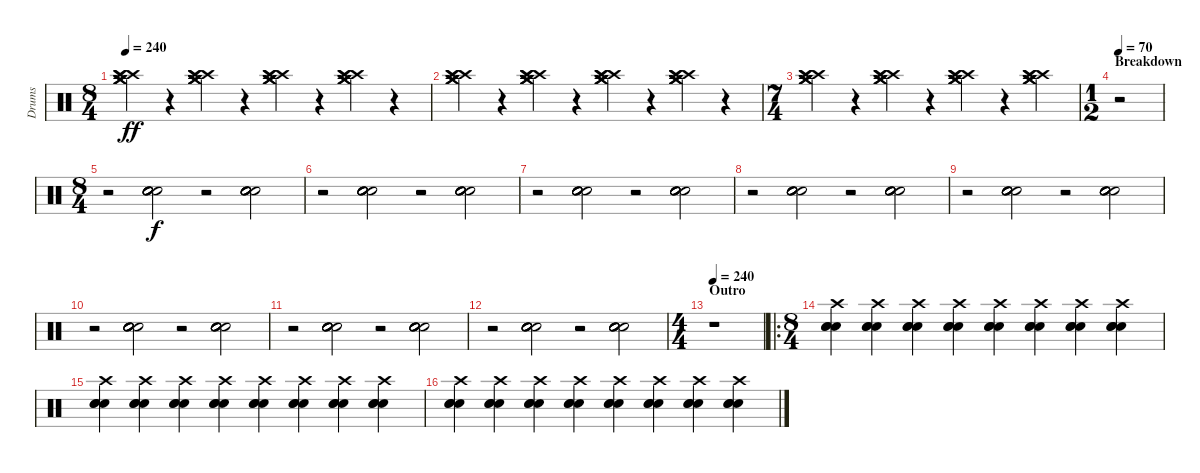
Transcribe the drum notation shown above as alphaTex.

\track ("Drums" "Drums") {instrument percussion}
\staff {score}
\articulation defaults
\ts (8 4)
\tempo 240
\clef neutral
\ks c
("Crash medium (hit)" "Crash medium (hit)" "Crash medium (hit)" "Crash high (hit)" "Crash high (hit)" "Crash high (hit)").4{dy ff} r.4 ("Crash medium (hit)" "Crash medium (hit)" "Crash medium (hit)" "Crash high (hit)" "Crash high (hit)" "Crash high (hit)").4 r.4 ("Crash medium (hit)" "Crash medium (hit)" "Crash medium (hit)" "Crash high (hit)" "Crash high (hit)" "Crash high (hit)").4 r.4 ("Crash medium (hit)" "Crash medium (hit)" "Crash medium (hit)" "Crash high (hit)" "Crash high (hit)" "Crash high (hit)").4 r.4 |
("Crash medium (hit)" "Crash medium (hit)" "Crash medium (hit)" "Crash high (hit)" "Crash high (hit)" "Crash high (hit)").4 r.4 ("Crash medium (hit)" "Crash medium (hit)" "Crash medium (hit)" "Crash high (hit)" "Crash high (hit)" "Crash high (hit)").4 r.4 ("Crash medium (hit)" "Crash medium (hit)" "Crash medium (hit)" "Crash high (hit)" "Crash high (hit)" "Crash high (hit)").4 r.4 ("Crash medium (hit)" "Crash medium (hit)" "Crash medium (hit)" "Crash high (hit)" "Crash high (hit)" "Crash high (hit)").4 r.4 |
\ts (7 4)
("Crash medium (hit)" "Crash medium (hit)" "Crash medium (hit)" "Crash high (hit)" "Crash high (hit)" "Crash high (hit)").4 r.4 ("Crash medium (hit)" "Crash medium (hit)" "Crash medium (hit)" "Crash high (hit)" "Crash high (hit)" "Crash high (hit)").4 r.4 ("Crash medium (hit)" "Crash medium (hit)" "Crash medium (hit)" "Crash high (hit)" "Crash high (hit)" "Crash high (hit)").4 r.4 ("Crash medium (hit)" "Crash medium (hit)" "Crash medium (hit)" "Crash high (hit)" "Crash high (hit)" "Crash high (hit)").4 |
\ts (1 2)
\section ("" "Breakdown")
\tempo 70
r.2 |
\ts (8 4)
r.2 ("Snare (hit) 2" "Snare (hit) 2" "Snare (hit) 2" "Snare (hit) 2" "Snare (hit) 2" "Snare (hit) 2").2{dy f} r.2 ("Snare (hit) 2" "Snare (hit) 2" "Snare (hit) 2" "Snare (hit) 2" "Snare (hit) 2" "Snare (hit) 2").2 |
r.2 ("Snare (hit) 2" "Snare (hit) 2" "Snare (hit) 2" "Snare (hit) 2" "Snare (hit) 2" "Snare (hit) 2").2 r.2 ("Snare (hit) 2" "Snare (hit) 2" "Snare (hit) 2" "Snare (hit) 2" "Snare (hit) 2" "Snare (hit) 2").2 |
r.2 ("Snare (hit) 2" "Snare (hit) 2" "Snare (hit) 2" "Snare (hit) 2" "Snare (hit) 2" "Snare (hit) 2").2 r.2 ("Snare (hit) 2" "Snare (hit) 2" "Snare (hit) 2" "Snare (hit) 2" "Snare (hit) 2" "Snare (hit) 2").2 |
r.2 ("Snare (hit) 2" "Snare (hit) 2" "Snare (hit) 2" "Snare (hit) 2" "Snare (hit) 2" "Snare (hit) 2").2 r.2 ("Snare (hit) 2" "Snare (hit) 2" "Snare (hit) 2" "Snare (hit) 2" "Snare (hit) 2" "Snare (hit) 2").2 |
r.2 ("Snare (hit) 2" "Snare (hit) 2" "Snare (hit) 2" "Snare (hit) 2" "Snare (hit) 2" "Snare (hit) 2").2 r.2 ("Snare (hit) 2" "Snare (hit) 2" "Snare (hit) 2" "Snare (hit) 2" "Snare (hit) 2" "Snare (hit) 2").2 |
r.2 ("Snare (hit) 2" "Snare (hit) 2" "Snare (hit) 2" "Snare (hit) 2" "Snare (hit) 2" "Snare (hit) 2").2 r.2 ("Snare (hit) 2" "Snare (hit) 2" "Snare (hit) 2" "Snare (hit) 2" "Snare (hit) 2" "Snare (hit) 2").2 |
r.2 ("Snare (hit) 2" "Snare (hit) 2" "Snare (hit) 2" "Snare (hit) 2" "Snare (hit) 2" "Snare (hit) 2").2 r.2 ("Snare (hit) 2" "Snare (hit) 2" "Snare (hit) 2" "Snare (hit) 2" "Snare (hit) 2" "Snare (hit) 2").2 |
r.2 ("Snare (hit) 2" "Snare (hit) 2" "Snare (hit) 2" "Snare (hit) 2" "Snare (hit) 2" "Snare (hit) 2").2 r.2 ("Snare (hit) 2" "Snare (hit) 2" "Snare (hit) 2" "Snare (hit) 2" "Snare (hit) 2" "Snare (hit) 2").2 |
\ts (4 4)
\section ("" "Outro")
\tempo 240
r.1 |
\ro
\ts (8 4)
("Crash high (hit)" "Snare (hit) 2" "Snare (hit) 2" "Snare (hit) 2").4 ("Crash high (hit)" "Snare (hit) 2" "Snare (hit) 2" "Snare (hit) 2").4 ("Crash high (hit)" "Snare (hit) 2" "Snare (hit) 2" "Snare (hit) 2").4 ("Crash high (hit)" "Snare (hit) 2" "Snare (hit) 2" "Snare (hit) 2").4 ("Crash high (hit)" "Snare (hit) 2" "Snare (hit) 2" "Snare (hit) 2").4 ("Crash high (hit)" "Snare (hit) 2" "Snare (hit) 2" "Snare (hit) 2").4 ("Crash high (hit)" "Snare (hit) 2" "Snare (hit) 2" "Snare (hit) 2").4 ("Crash high (hit)" "Snare (hit) 2" "Snare (hit) 2" "Snare (hit) 2").4 |
("Crash high (hit)" "Snare (hit) 2" "Snare (hit) 2" "Snare (hit) 2").4 ("Crash high (hit)" "Snare (hit) 2" "Snare (hit) 2" "Snare (hit) 2").4 ("Crash high (hit)" "Snare (hit) 2" "Snare (hit) 2" "Snare (hit) 2").4 ("Crash high (hit)" "Snare (hit) 2" "Snare (hit) 2" "Snare (hit) 2").4 ("Crash high (hit)" "Snare (hit) 2" "Snare (hit) 2" "Snare (hit) 2").4 ("Crash high (hit)" "Snare (hit) 2" "Snare (hit) 2" "Snare (hit) 2").4 ("Crash high (hit)" "Snare (hit) 2" "Snare (hit) 2" "Snare (hit) 2").4 ("Crash high (hit)" "Snare (hit) 2" "Snare (hit) 2" "Snare (hit) 2").4 |
("Crash high (hit)" "Snare (hit) 2" "Snare (hit) 2" "Snare (hit) 2").4 ("Crash high (hit)" "Snare (hit) 2" "Snare (hit) 2" "Snare (hit) 2").4 ("Crash high (hit)" "Snare (hit) 2" "Snare (hit) 2" "Snare (hit) 2").4 ("Crash high (hit)" "Snare (hit) 2" "Snare (hit) 2" "Snare (hit) 2").4 ("Crash high (hit)" "Snare (hit) 2" "Snare (hit) 2" "Snare (hit) 2").4 ("Crash high (hit)" "Snare (hit) 2" "Snare (hit) 2" "Snare (hit) 2").4 ("Crash high (hit)" "Snare (hit) 2" "Snare (hit) 2" "Snare (hit) 2").4 ("Crash high (hit)" "Snare (hit) 2" "Snare (hit) 2" "Snare (hit) 2").4
